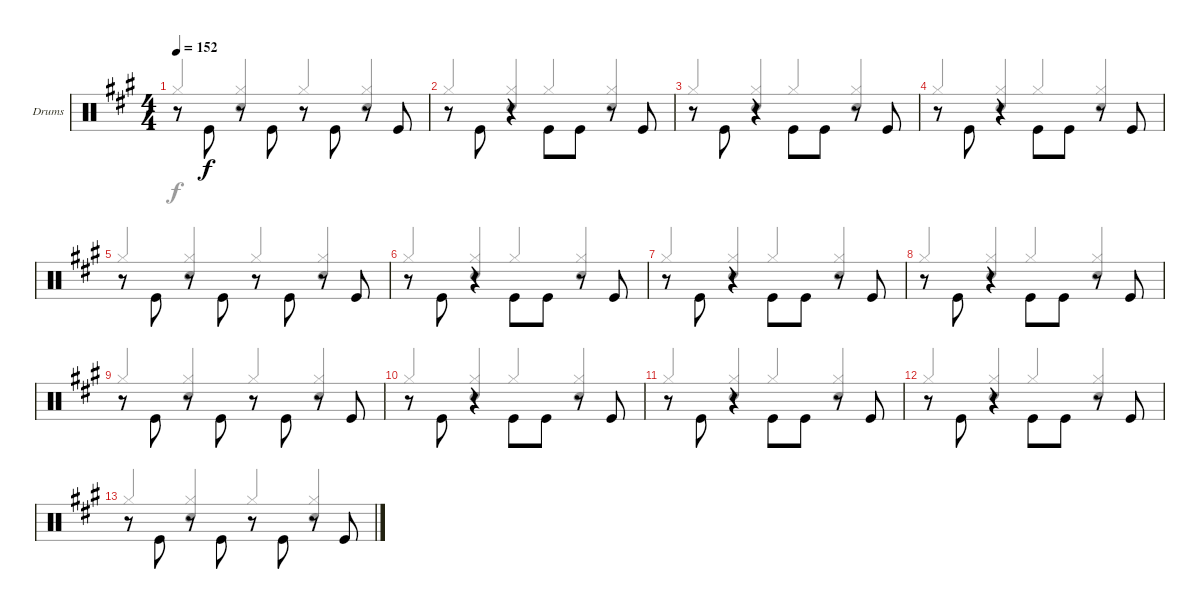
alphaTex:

\defaultSystemsLayout 4
\bracketExtendMode groupsimilarinstruments
\firstSystemTrackNameOrientation horizontal
\otherSystemsTrackNameOrientation horizontal
\track ("Drumkit" "Drums") {instrument percussion}
\staff {score}
\articulation defaults
\voice
\ts (4 4)
\tempo 152
\clef neutral
\scale
1.05801
\ks a
r.8{dy f} "Kick (hit)".8{beam invert} r.8 "Kick (hit)".8 r.8{beam invert} "Kick (hit)".8{beam invert} r.8 "Kick (hit)".8 |
\scale
0.941992 r.8 "Kick (hit)".8{beam invert} r.4 "Kick (hit)".8{beam invert} "Kick (hit)".8 r.8 "Kick (hit)".8 |
\scale
1.05801 r.8 "Kick (hit)".8{beam invert} r.4 "Kick (hit)".8{beam invert} "Kick (hit)".8 r.8 "Kick (hit)".8 |
\scale
0.941992 r.8 "Kick (hit)".8{beam invert} r.4 "Kick (hit)".8{beam invert} "Kick (hit)".8 r.8 "Kick (hit)".8 |
\scale
1.05801 r.8 "Kick (hit)".8{beam invert} r.8 "Kick (hit)".8 r.8{beam invert} "Kick (hit)".8{beam invert} r.8 "Kick (hit)".8 |
\scale
0.941992 r.8{beam invert} "Kick (hit)".8{beam invert} r.4{beam invert} "Kick (hit)".8{beam invert} "Kick (hit)".8 r.8 "Kick (hit)".8 |
\scale
1.05801 r.8{beam invert} "Kick (hit)".8{beam invert} r.4{beam invert} "Kick (hit)".8{beam invert} "Kick (hit)".8 r.8 "Kick (hit)".8 |
\scale
0.941992 r.8{beam invert} "Kick (hit)".8{beam invert} r.4{beam invert} "Kick (hit)".8{beam invert} "Kick (hit)".8 r.8 "Kick (hit)".8 |
\scale
1.05801 r.8 "Kick (hit)".8{beam invert} r.8 "Kick (hit)".8 r.8{beam invert} "Kick (hit)".8{beam invert} r.8 "Kick (hit)".8 |
\scale
0.941992 r.8{beam invert} "Kick (hit)".8{beam invert} r.4{beam invert} "Kick (hit)".8{beam invert} "Kick (hit)".8 r.8 "Kick (hit)".8 |
\scale
1.05801 r.8{beam invert} "Kick (hit)".8{beam invert} r.4{beam invert} "Kick (hit)".8{beam invert} "Kick (hit)".8 r.8 "Kick (hit)".8 |
\scale
0.941992 r.8{beam invert} "Kick (hit)".8{beam invert} r.4{beam invert} "Kick (hit)".8{beam invert} "Kick (hit)".8 r.8 "Kick (hit)".8 |
r.8 "Kick (hit)".8{beam invert} r.8 "Kick (hit)".8 r.8{beam invert} "Kick (hit)".8{beam invert} r.8 "Kick (hit)".8
\voice
\clef neutral
\ottava regular
\simile none
\scale
1.05801
\ks a "Hi-Hat (closed)".4{dy f beam invert}
("Hi-Hat (closed)" "Snare (hit) 2").4{beam invert} "Hi-Hat (closed)".4{beam invert} ("Hi-Hat (closed)" "Snare (hit) 2").4{beam invert} |
\scale
0.941992 "Hi-Hat (closed)".4{beam invert} ("Hi-Hat (closed)" "Snare (hit) 2").4{beam invert} "Hi-Hat (closed)".4{beam invert} ("Hi-Hat (closed)" "Snare (hit) 2").4{beam invert} |
\scale
1.05801 "Hi-Hat (closed)".4{beam invert} ("Hi-Hat (closed)" "Snare (hit) 2").4{beam invert} "Hi-Hat (closed)".4{beam invert} ("Hi-Hat (closed)" "Snare (hit) 2").4{beam invert} |
\scale
0.941992 "Hi-Hat (closed)".4{beam invert} ("Hi-Hat (closed)" "Snare (hit) 2").4{beam invert} "Hi-Hat (closed)".4{beam invert} ("Hi-Hat (closed)" "Snare (hit) 2").4{beam invert} |
\scale
1.05801 "Hi-Hat (closed)".4{beam invert} ("Hi-Hat (closed)" "Snare (hit) 2").4{beam invert} "Hi-Hat (closed)".4{beam invert} ("Hi-Hat (closed)" "Snare (hit) 2").4{beam invert} |
\scale
0.941992 "Hi-Hat (closed)".4{beam invert} ("Hi-Hat (closed)" "Snare (hit) 2").4{beam invert} "Hi-Hat (closed)".4{beam invert} ("Hi-Hat (closed)" "Snare (hit) 2").4{beam invert} |
\scale
1.05801 "Hi-Hat (closed)".4{beam invert} ("Hi-Hat (closed)" "Snare (hit) 2").4{beam invert} "Hi-Hat (closed)".4{beam invert} ("Hi-Hat (closed)" "Snare (hit) 2").4{beam invert} |
\scale
0.941992 "Hi-Hat (closed)".4{beam invert} ("Hi-Hat (closed)" "Snare (hit) 2").4{beam invert} "Hi-Hat (closed)".4{beam invert} ("Hi-Hat (closed)" "Snare (hit) 2").4{beam invert} |
\scale
1.05801 "Hi-Hat (closed)".4{beam invert} ("Hi-Hat (closed)" "Snare (hit) 2").4{beam invert} "Hi-Hat (closed)".4{beam invert} ("Hi-Hat (closed)" "Snare (hit) 2").4{beam invert} |
\scale
0.941992 "Hi-Hat (closed)".4{beam invert} ("Hi-Hat (closed)" "Snare (hit) 2").4{beam invert} "Hi-Hat (closed)".4{beam invert} ("Hi-Hat (closed)" "Snare (hit) 2").4{beam invert} |
\scale
1.05801 "Hi-Hat (closed)".4{beam invert} ("Hi-Hat (closed)" "Snare (hit) 2").4{beam invert} "Hi-Hat (closed)".4{beam invert} ("Hi-Hat (closed)" "Snare (hit) 2").4{beam invert} |
\scale
0.941992 "Hi-Hat (closed)".4{beam invert} ("Hi-Hat (closed)" "Snare (hit) 2").4{beam invert} "Hi-Hat (closed)".4{beam invert} ("Hi-Hat (closed)" "Snare (hit) 2").4{beam invert} |
"Hi-Hat (closed)".4{beam invert} ("Hi-Hat (closed)" "Snare (hit) 2").4{beam invert} "Hi-Hat (closed)".4{beam invert} ("Hi-Hat (closed)" "Snare (hit) 2").4{beam invert}
